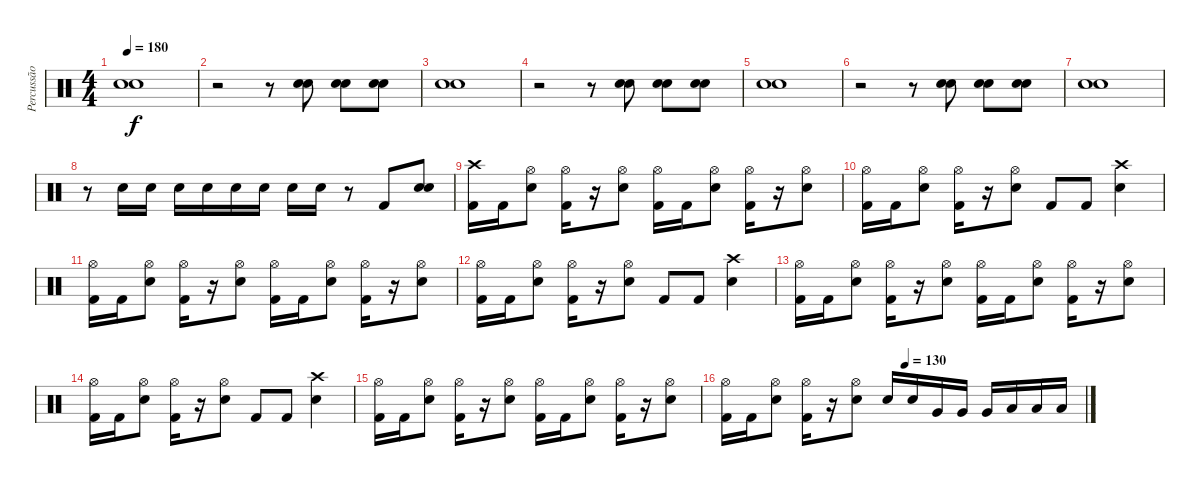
\track ("Percussão" "Percussão") {instrument percussion}
\staff {score}
\articulation defaults
\ts (4 4)
\tempo 180
\clef neutral
\ks c
("Electric Snare (hit)" "Electric Snare (hit)").1{dy f} |
r.2 r.8 ("Electric Snare (hit)" "Electric Snare (hit)").8 ("Electric Snare (hit)" "Electric Snare (hit)").8 ("Electric Snare (hit)" "Electric Snare (hit)").8 |
("Electric Snare (hit)" "Electric Snare (hit)").1 |
r.2 r.8 ("Electric Snare (hit)" "Electric Snare (hit)").8 ("Electric Snare (hit)" "Electric Snare (hit)").8 ("Electric Snare (hit)" "Electric Snare (hit)").8 |
("Electric Snare (hit)" "Electric Snare (hit)").1 |
r.2 r.8 ("Electric Snare (hit)" "Electric Snare (hit)").8 ("Electric Snare (hit)" "Electric Snare (hit)").8 ("Electric Snare (hit)" "Electric Snare (hit)").8 |
("Electric Snare (hit)" "Electric Snare (hit)").1 |
r.8 "Electric Snare (hit)".16 "Electric Snare (hit)".16 "Electric Snare (hit)".16 "Electric Snare (hit)".16 "Electric Snare (hit)".16 "Electric Snare (hit)".16 "Electric Snare (hit)".16 "Electric Snare (hit)".16 r.8 "Kick (hit) 2".8 ("Electric Snare (hit)" "Electric Snare (hit)").8{bd 240} |
("Crash high (hit)" "Kick (hit) 2").16 "Kick (hit) 2".16 ("Hi-Hat (open)" "Electric Snare (hit)").8 ("Hi-Hat (open)" "Kick (hit) 2").16 r.16 ("Hi-Hat (open)" "Electric Snare (hit)").8 ("Hi-Hat (open)" "Kick (hit) 2").16 "Kick (hit) 2".16 ("Hi-Hat (open)" "Electric Snare (hit)").8 ("Hi-Hat (open)" "Kick (hit) 2").16 r.16 ("Hi-Hat (open)" "Electric Snare (hit)").8 |
("Hi-Hat (open)" "Kick (hit) 2").16 "Kick (hit) 2".16 ("Hi-Hat (open)" "Electric Snare (hit)").8 ("Hi-Hat (open)" "Kick (hit) 2").16 r.16 ("Hi-Hat (open)" "Electric Snare (hit)").8 "Kick (hit) 2".8 "Kick (hit) 2".8 ("Crash high (hit)" "Electric Snare (hit)").4 |
("Hi-Hat (open)" "Kick (hit) 2").16 "Kick (hit) 2".16 ("Hi-Hat (open)" "Electric Snare (hit)").8 ("Hi-Hat (open)" "Kick (hit) 2").16 r.16 ("Hi-Hat (open)" "Electric Snare (hit)").8 ("Hi-Hat (open)" "Kick (hit) 2").16 "Kick (hit) 2".16 ("Hi-Hat (open)" "Electric Snare (hit)").8 ("Hi-Hat (open)" "Kick (hit) 2").16 r.16 ("Hi-Hat (open)" "Electric Snare (hit)").8 |
("Hi-Hat (open)" "Kick (hit) 2").16 "Kick (hit) 2".16 ("Hi-Hat (open)" "Electric Snare (hit)").8 ("Hi-Hat (open)" "Kick (hit) 2").16 r.16 ("Hi-Hat (open)" "Electric Snare (hit)").8 "Kick (hit) 2".8 "Kick (hit) 2".8 ("Crash high (hit)" "Electric Snare (hit)").4 |
("Hi-Hat (open)" "Kick (hit) 2").16 "Kick (hit) 2".16 ("Hi-Hat (open)" "Electric Snare (hit)").8 ("Hi-Hat (open)" "Kick (hit) 2").16 r.16 ("Hi-Hat (open)" "Electric Snare (hit)").8 ("Hi-Hat (open)" "Kick (hit) 2").16 "Kick (hit) 2".16 ("Hi-Hat (open)" "Electric Snare (hit)").8 ("Hi-Hat (open)" "Kick (hit) 2").16 r.16 ("Hi-Hat (open)" "Electric Snare (hit)").8 |
("Hi-Hat (open)" "Kick (hit) 2").16 "Kick (hit) 2".16 ("Hi-Hat (open)" "Electric Snare (hit)").8 ("Hi-Hat (open)" "Kick (hit) 2").16 r.16 ("Hi-Hat (open)" "Electric Snare (hit)").8 "Kick (hit) 2".8 "Kick (hit) 2".8 ("Crash high (hit)" "Electric Snare (hit)").4 |
("Hi-Hat (open)" "Kick (hit) 2").16 "Kick (hit) 2".16 ("Hi-Hat (open)" "Electric Snare (hit)").8 ("Hi-Hat (open)" "Kick (hit) 2").16 r.16 ("Hi-Hat (open)" "Electric Snare (hit)").8 ("Hi-Hat (open)" "Kick (hit) 2").16 "Kick (hit) 2".16 ("Hi-Hat (open)" "Electric Snare (hit)").8 ("Hi-Hat (open)" "Kick (hit) 2").16 r.16 ("Hi-Hat (open)" "Electric Snare (hit)").8 |
\tempo (130 0.5)
("Hi-Hat (open)" "Kick (hit) 2").16 "Kick (hit) 2".16 ("Hi-Hat (open)" "Electric Snare (hit)").8 ("Hi-Hat (open)" "Kick (hit) 2").16 r.16 ("Hi-Hat (open)" "Electric Snare (hit)").8 "Electric Snare (hit)".16 "Electric Snare (hit)".16 "Very Low Tom (hit)".16 "Very Low Tom (hit)".16 "Very Low Tom (hit)".16 "Low Floor Tom (hit)".16 "Low Floor Tom (hit)".16 "Low Floor Tom (hit)".16
